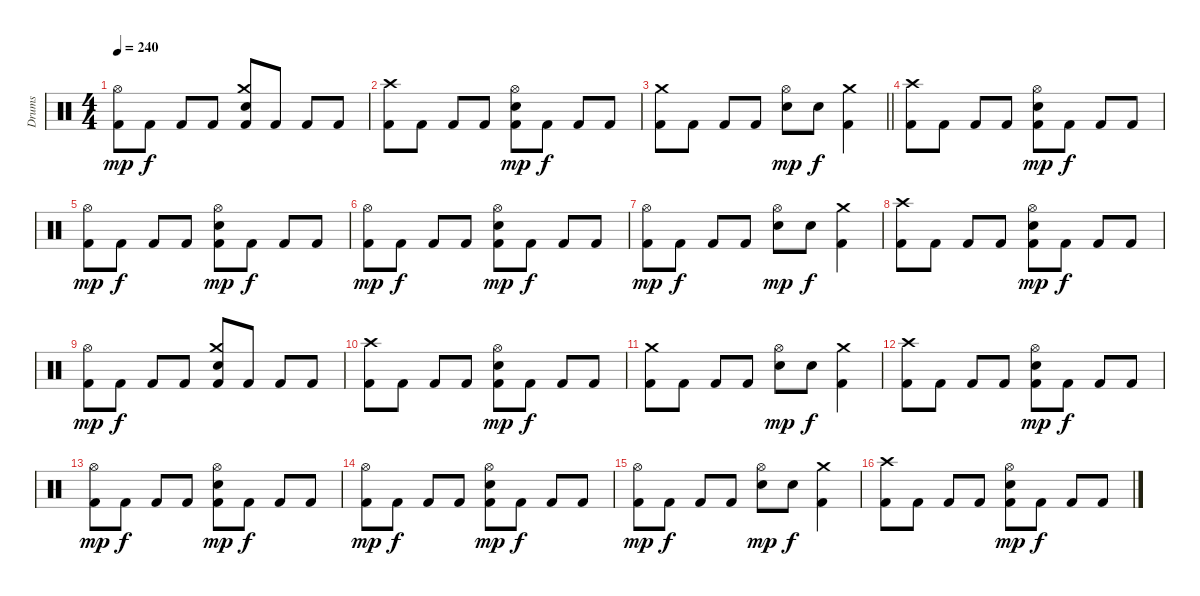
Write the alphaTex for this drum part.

\track ("Drums" "Drums") {instrument percussion}
\staff {score}
\articulation defaults
\ts (4 4)
\tempo 240
\clef neutral
\ks c
("Hi-Hat (open)" "Kick (hit) 2").8{dy mp} "Kick (hit) 2".8{dy f} "Kick (hit) 2".8 "Kick (hit) 2".8 ("Crash medium (hit)" "Snare (hit) 2" "Kick (hit) 2").8 "Kick (hit) 2".8 "Kick (hit) 2".8 "Kick (hit) 2".8 |
("Crash high (hit)" "Kick (hit) 2").8 "Kick (hit) 2".8 "Kick (hit) 2".8 "Kick (hit) 2".8 ("Hi-Hat (open)" "Snare (hit) 2" "Kick (hit) 2").8{dy mp} "Kick (hit) 2".8{dy f} "Kick (hit) 2".8 "Kick (hit) 2".8 |
\barLineRight lightlight
("Crash medium (hit)" "Kick (hit) 2").8 "Kick (hit) 2".8 "Kick (hit) 2".8 "Kick (hit) 2".8 ("Hi-Hat (open)" "Snare (hit) 2").8{dy mp} "Snare (hit) 2".8{dy f} ("Crash medium (hit)" "Kick (hit) 2").4 |
("Crash high (hit)" "Kick (hit) 2").8 "Kick (hit) 2".8 "Kick (hit) 2".8 "Kick (hit) 2".8 ("Hi-Hat (open)" "Snare (hit) 2" "Kick (hit) 2").8{dy mp} "Kick (hit) 2".8{dy f} "Kick (hit) 2".8 "Kick (hit) 2".8 |
("Hi-Hat (open)" "Kick (hit) 2").8{dy mp} "Kick (hit) 2".8{dy f} "Kick (hit) 2".8 "Kick (hit) 2".8 ("Hi-Hat (open)" "Snare (hit) 2" "Kick (hit) 2").8{dy mp} "Kick (hit) 2".8{dy f} "Kick (hit) 2".8 "Kick (hit) 2".8 |
("Hi-Hat (open)" "Kick (hit) 2").8{dy mp} "Kick (hit) 2".8{dy f} "Kick (hit) 2".8 "Kick (hit) 2".8 ("Hi-Hat (open)" "Snare (hit) 2" "Kick (hit) 2").8{dy mp} "Kick (hit) 2".8{dy f} "Kick (hit) 2".8 "Kick (hit) 2".8 |
("Hi-Hat (open)" "Kick (hit) 2").8{dy mp} "Kick (hit) 2".8{dy f} "Kick (hit) 2".8 "Kick (hit) 2".8 ("Hi-Hat (open)" "Snare (hit) 2").8{dy mp} "Snare (hit) 2".8{dy f} ("Crash medium (hit)" "Kick (hit) 2").4 |
("Crash high (hit)" "Kick (hit) 2").8 "Kick (hit) 2".8 "Kick (hit) 2".8 "Kick (hit) 2".8 ("Hi-Hat (open)" "Snare (hit) 2" "Kick (hit) 2").8{dy mp} "Kick (hit) 2".8{dy f} "Kick (hit) 2".8 "Kick (hit) 2".8 |
("Hi-Hat (open)" "Kick (hit) 2").8{dy mp} "Kick (hit) 2".8{dy f} "Kick (hit) 2".8 "Kick (hit) 2".8 ("Crash medium (hit)" "Snare (hit) 2" "Kick (hit) 2").8 "Kick (hit) 2".8 "Kick (hit) 2".8 "Kick (hit) 2".8 |
("Crash high (hit)" "Kick (hit) 2").8 "Kick (hit) 2".8 "Kick (hit) 2".8 "Kick (hit) 2".8 ("Hi-Hat (open)" "Snare (hit) 2" "Kick (hit) 2").8{dy mp} "Kick (hit) 2".8{dy f} "Kick (hit) 2".8 "Kick (hit) 2".8 |
("Crash medium (hit)" "Kick (hit) 2").8 "Kick (hit) 2".8 "Kick (hit) 2".8 "Kick (hit) 2".8 ("Hi-Hat (open)" "Snare (hit) 2").8{dy mp} "Snare (hit) 2".8{dy f} ("Crash medium (hit)" "Kick (hit) 2").4 |
("Crash high (hit)" "Kick (hit) 2").8 "Kick (hit) 2".8 "Kick (hit) 2".8 "Kick (hit) 2".8 ("Hi-Hat (open)" "Snare (hit) 2" "Kick (hit) 2").8{dy mp} "Kick (hit) 2".8{dy f} "Kick (hit) 2".8 "Kick (hit) 2".8 |
("Hi-Hat (open)" "Kick (hit) 2").8{dy mp} "Kick (hit) 2".8{dy f} "Kick (hit) 2".8 "Kick (hit) 2".8 ("Hi-Hat (open)" "Snare (hit) 2" "Kick (hit) 2").8{dy mp} "Kick (hit) 2".8{dy f} "Kick (hit) 2".8 "Kick (hit) 2".8 |
("Hi-Hat (open)" "Kick (hit) 2").8{dy mp} "Kick (hit) 2".8{dy f} "Kick (hit) 2".8 "Kick (hit) 2".8 ("Hi-Hat (open)" "Snare (hit) 2" "Kick (hit) 2").8{dy mp} "Kick (hit) 2".8{dy f} "Kick (hit) 2".8 "Kick (hit) 2".8 |
("Hi-Hat (open)" "Kick (hit) 2").8{dy mp} "Kick (hit) 2".8{dy f} "Kick (hit) 2".8 "Kick (hit) 2".8 ("Hi-Hat (open)" "Snare (hit) 2").8{dy mp} "Snare (hit) 2".8{dy f} ("Crash medium (hit)" "Kick (hit) 2").4 |
("Crash high (hit)" "Kick (hit) 2").8 "Kick (hit) 2".8 "Kick (hit) 2".8 "Kick (hit) 2".8 ("Hi-Hat (open)" "Snare (hit) 2" "Kick (hit) 2").8{dy mp} "Kick (hit) 2".8{dy f} "Kick (hit) 2".8 "Kick (hit) 2".8
